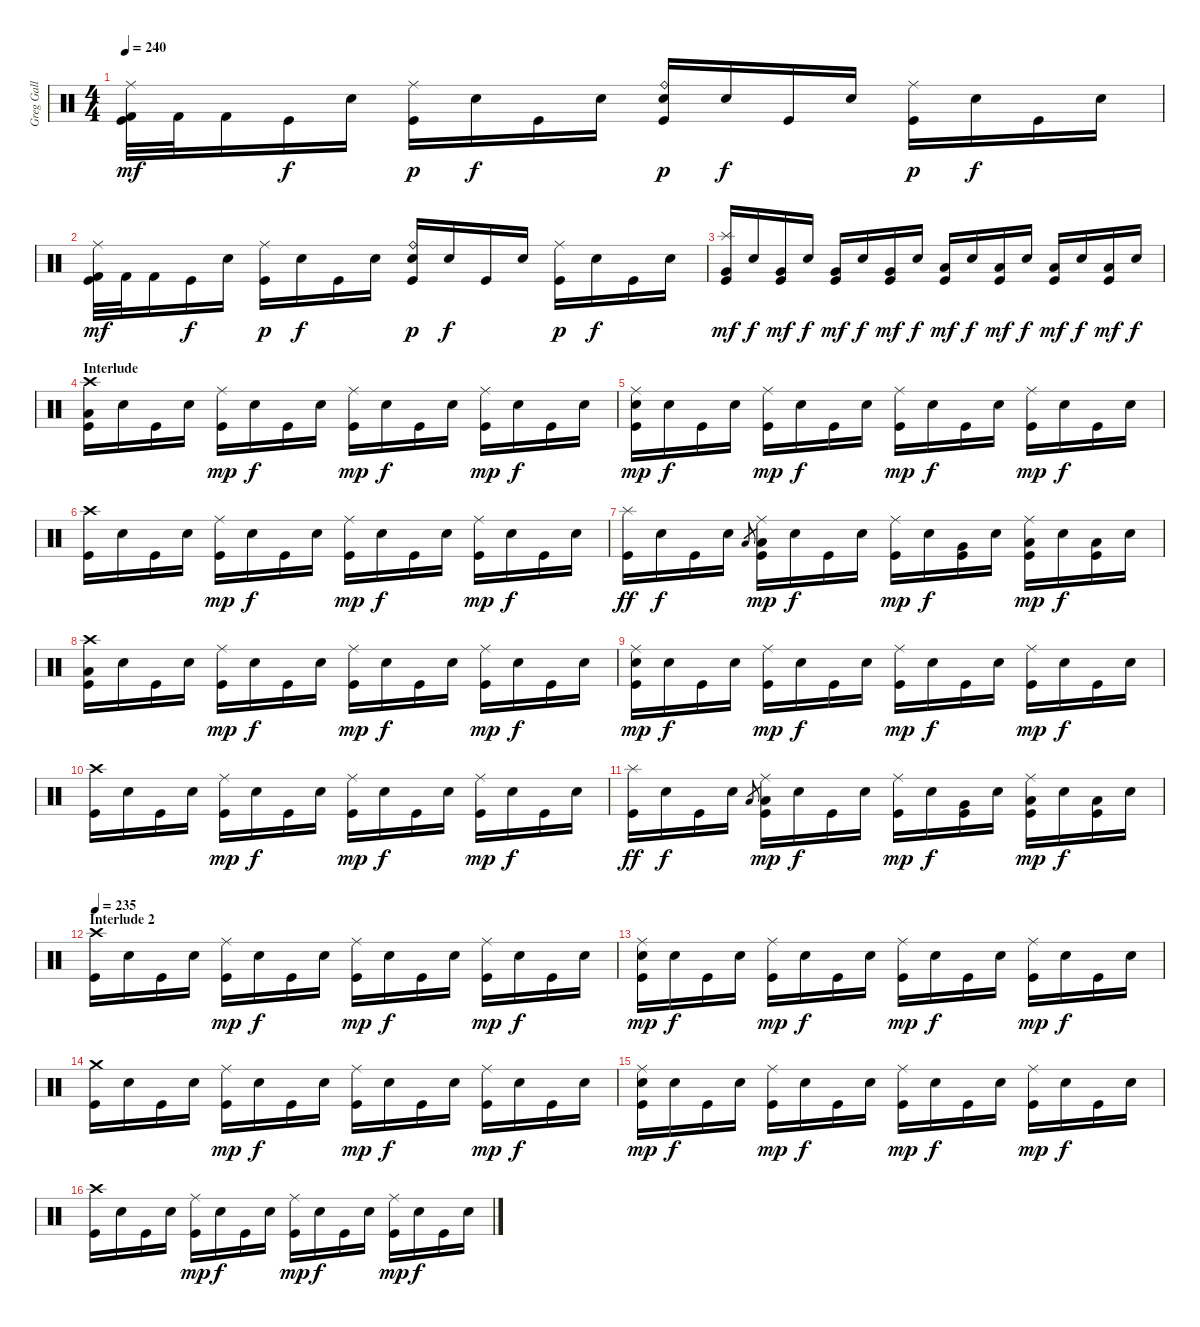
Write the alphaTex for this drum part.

\track ("Greg Gall - Drums" "Greg Gall ") {instrument percussion}
\staff {score}
\articulation defaults
\ts (4 4)
\tempo 240
\clef neutral
\ks c
("Ride (middle)" "Kick (hit) 2" "Kick (hit)").32{dy mf} "Kick (hit) 2".32 "Kick (hit) 2".16 "Kick (hit)".16{dy f} "Snare (hit)".16 ("Ride (middle)" "Kick (hit)").16{dy p} "Snare (hit)".16{dy f} "Kick (hit)".16 "Snare (hit)".16 ("Ride (bell)" "Electric Snare (hit)" "Kick (hit)").16{dy p} "Snare (hit)".16{dy f} "Kick (hit)".16 "Snare (hit)".16 ("Ride (middle)" "Kick (hit)").16{dy p} "Snare (hit)".16{dy f} "Kick (hit)".16 "Snare (hit)".16 |
("Ride (middle)" "Kick (hit) 2" "Kick (hit)").32{dy mf} "Kick (hit) 2".32 "Kick (hit) 2".16 "Kick (hit)".16{dy f} "Snare (hit)".16 ("Ride (middle)" "Kick (hit)").16{dy p} "Snare (hit)".16{dy f} "Kick (hit)".16 "Snare (hit)".16 ("Ride (bell)" "Electric Snare (hit)" "Kick (hit)").16{dy p} "Snare (hit)".16{dy f} "Kick (hit)".16 "Snare (hit)".16 ("Ride (middle)" "Kick (hit)").16{dy p} "Snare (hit)".16{dy f} "Kick (hit)".16 "Snare (hit)".16 |
("Splash (hit)" "Very Low Tom (hit)" "Kick (hit)").16{dy mf} "Snare (hit)".16{dy f} ("Very Low Tom (hit)" "Kick (hit)").16{dy mf} "Snare (hit)".16{dy f} ("Very Low Tom (hit)" "Kick (hit)").16{dy mf} "Snare (hit)".16{dy f} ("Very Low Tom (hit)" "Kick (hit)").16{dy mf} "Snare (hit)".16{dy f} ("Low Floor Tom (hit)" "Kick (hit)").16{dy mf} "Snare (hit)".16{dy f} ("Low Floor Tom (hit)" "Kick (hit)").16{dy mf} "Snare (hit)".16{dy f} ("Low Floor Tom (hit)" "Kick (hit)").16{dy mf} "Snare (hit)".16{dy f} ("Low Floor Tom (hit)" "Kick (hit)").16{dy mf} "Snare (hit)".16{dy f} |
\section ("" "Interlude")
("Crash high (hit)" "Low Floor Tom (hit)" "Kick (hit)").16 "Snare (hit)".16 "Kick (hit)".16 "Snare (hit)".16 ("Ride (middle)" "Kick (hit)").16{dy mp} "Snare (hit)".16{dy f} "Kick (hit)".16 "Snare (hit)".16 ("Ride (middle)" "Kick (hit)").16{dy mp} "Snare (hit)".16{dy f} "Kick (hit)".16 "Snare (hit)".16 ("Ride (middle)" "Kick (hit)").16{dy mp} "Snare (hit)".16{dy f} "Kick (hit)".16 "Snare (hit)".16 |
("Ride (middle)" "Electric Snare (hit)" "Kick (hit)").16{dy mp} "Snare (hit)".16{dy f} "Kick (hit)".16 "Snare (hit)".16 ("Ride (middle)" "Kick (hit)").16{dy mp} "Snare (hit)".16{dy f} "Kick (hit)".16 "Snare (hit)".16 ("Ride (middle)" "Kick (hit)").16{dy mp} "Snare (hit)".16{dy f} "Kick (hit)".16 "Snare (hit)".16 ("Ride (middle)" "Kick (hit)").16{dy mp} "Snare (hit)".16{dy f} "Kick (hit)".16 "Snare (hit)".16 |
("Crash high (hit)" "Kick (hit)").16 "Snare (hit)".16 "Kick (hit)".16 "Snare (hit)".16 ("Ride (middle)" "Kick (hit)").16{dy mp} "Snare (hit)".16{dy f} "Kick (hit)".16 "Snare (hit)".16 ("Ride (middle)" "Kick (hit)").16{dy mp} "Snare (hit)".16{dy f} "Kick (hit)".16 "Snare (hit)".16 ("Ride (middle)" "Kick (hit)").16{dy mp} "Snare (hit)".16{dy f} "Kick (hit)".16 "Snare (hit)".16 |
("Splash (hit)" "Kick (hit)").16{dy ff} "Snare (hit)".16{dy f} "Kick (hit)".16 "Snare (hit)".16 "Low Floor Tom (hit)".8{gr} ("Ride (middle)" "Low Floor Tom (hit)" "Kick (hit)").16{dy mp} "Snare (hit)".16{dy f} "Kick (hit)".16 "Snare (hit)".16 ("Ride (middle)" "Kick (hit)").16{dy mp} "Snare (hit)".16{dy f} ("Very Low Tom (hit)" "Kick (hit)").16 "Snare (hit)".16 ("Ride (middle)" "Low Floor Tom (hit)" "Kick (hit)").16{dy mp} "Snare (hit)".16{dy f} ("Low Floor Tom (hit)" "Kick (hit)").16 "Snare (hit)".16 |
("Crash high (hit)" "Low Floor Tom (hit)" "Kick (hit)").16 "Snare (hit)".16 "Kick (hit)".16 "Snare (hit)".16 ("Ride (middle)" "Kick (hit)").16{dy mp} "Snare (hit)".16{dy f} "Kick (hit)".16 "Snare (hit)".16 ("Ride (middle)" "Kick (hit)").16{dy mp} "Snare (hit)".16{dy f} "Kick (hit)".16 "Snare (hit)".16 ("Ride (middle)" "Kick (hit)").16{dy mp} "Snare (hit)".16{dy f} "Kick (hit)".16 "Snare (hit)".16 |
("Ride (middle)" "Electric Snare (hit)" "Kick (hit)").16{dy mp} "Snare (hit)".16{dy f} "Kick (hit)".16 "Snare (hit)".16 ("Ride (middle)" "Kick (hit)").16{dy mp} "Snare (hit)".16{dy f} "Kick (hit)".16 "Snare (hit)".16 ("Ride (middle)" "Kick (hit)").16{dy mp} "Snare (hit)".16{dy f} "Kick (hit)".16 "Snare (hit)".16 ("Ride (middle)" "Kick (hit)").16{dy mp} "Snare (hit)".16{dy f} "Kick (hit)".16 "Snare (hit)".16 |
("Crash high (hit)" "Kick (hit)").16 "Snare (hit)".16 "Kick (hit)".16 "Snare (hit)".16 ("Ride (middle)" "Kick (hit)").16{dy mp} "Snare (hit)".16{dy f} "Kick (hit)".16 "Snare (hit)".16 ("Ride (middle)" "Kick (hit)").16{dy mp} "Snare (hit)".16{dy f} "Kick (hit)".16 "Snare (hit)".16 ("Ride (middle)" "Kick (hit)").16{dy mp} "Snare (hit)".16{dy f} "Kick (hit)".16 "Snare (hit)".16 |
("Splash (hit)" "Kick (hit)").16{dy ff} "Snare (hit)".16{dy f} "Kick (hit)".16 "Snare (hit)".16 "Low Floor Tom (hit)".8{gr} ("Ride (middle)" "Low Floor Tom (hit)" "Kick (hit)").16{dy mp} "Snare (hit)".16{dy f} "Kick (hit)".16 "Snare (hit)".16 ("Ride (middle)" "Kick (hit)").16{dy mp} "Snare (hit)".16{dy f} ("Very Low Tom (hit)" "Kick (hit)").16 "Snare (hit)".16 ("Ride (middle)" "Low Floor Tom (hit)" "Kick (hit)").16{dy mp} "Snare (hit)".16{dy f} ("Low Floor Tom (hit)" "Kick (hit)").16 "Snare (hit)".16 |
\section ("" "Interlude 2")
\tempo 235
("Crash high (hit)" "Kick (hit)").16{volume 12 balance 8} "Snare (hit)".16 "Kick (hit)".16 "Snare (hit)".16 ("Ride (middle)" "Kick (hit)").16{dy mp} "Snare (hit)".16{dy f} "Kick (hit)".16 "Snare (hit)".16 ("Ride (middle)" "Kick (hit)").16{dy mp} "Snare (hit)".16{dy f} "Kick (hit)".16 "Snare (hit)".16 ("Ride (middle)" "Kick (hit)").16{dy mp} "Snare (hit)".16{dy f} "Kick (hit)".16 "Snare (hit)".16 |
("Ride (middle)" "Electric Snare (hit)" "Kick (hit)").16{dy mp} "Snare (hit)".16{dy f} "Kick (hit)".16 "Snare (hit)".16 ("Ride (middle)" "Kick (hit)").16{dy mp} "Snare (hit)".16{dy f} "Kick (hit)".16 "Snare (hit)".16 ("Ride (middle)" "Kick (hit)").16{dy mp} "Snare (hit)".16{dy f} "Kick (hit)".16 "Snare (hit)".16 ("Ride (middle)" "Kick (hit)").16{dy mp} "Snare (hit)".16{dy f} "Kick (hit)".16 "Snare (hit)".16 |
("Crash medium (hit)" "Kick (hit)").16 "Snare (hit)".16 "Kick (hit)".16 "Snare (hit)".16 ("Ride (middle)" "Kick (hit)").16{dy mp} "Snare (hit)".16{dy f} "Kick (hit)".16 "Snare (hit)".16 ("Ride (middle)" "Kick (hit)").16{dy mp} "Snare (hit)".16{dy f} "Kick (hit)".16 "Snare (hit)".16 ("Ride (middle)" "Kick (hit)").16{dy mp} "Snare (hit)".16{dy f} "Kick (hit)".16 "Snare (hit)".16 |
("Ride (middle)" "Electric Snare (hit)" "Kick (hit)").16{dy mp} "Snare (hit)".16{dy f} "Kick (hit)".16 "Snare (hit)".16 ("Ride (middle)" "Kick (hit)").16{dy mp} "Snare (hit)".16{dy f} "Kick (hit)".16 "Snare (hit)".16 ("Ride (middle)" "Kick (hit)").16{dy mp} "Snare (hit)".16{dy f} "Kick (hit)".16 "Snare (hit)".16 ("Ride (middle)" "Kick (hit)").16{dy mp} "Snare (hit)".16{dy f} "Kick (hit)".16 "Snare (hit)".16 |
("Crash high (hit)" "Kick (hit)").16 "Snare (hit)".16 "Kick (hit)".16 "Snare (hit)".16 ("Ride (middle)" "Kick (hit)").16{dy mp} "Snare (hit)".16{dy f} "Kick (hit)".16 "Snare (hit)".16 ("Ride (middle)" "Kick (hit)").16{dy mp} "Snare (hit)".16{dy f} "Kick (hit)".16 "Snare (hit)".16 ("Ride (middle)" "Kick (hit)").16{dy mp} "Snare (hit)".16{dy f} "Kick (hit)".16 "Snare (hit)".16
